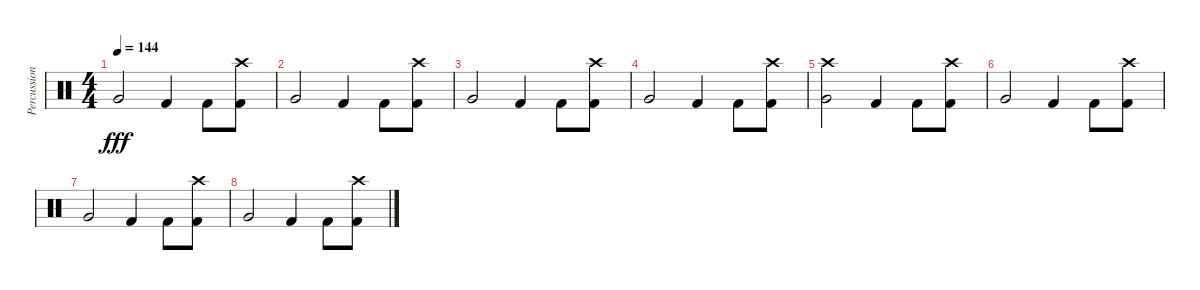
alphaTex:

\track ("Percussion" "Percussion") {instrument percussion}
\staff {score}
\articulation defaults
\ts (4 4)
\tempo 144
\clef neutral
\ks c "Very Low Tom (hit)".2{dy fff} "Kick (hit) 2".4 "Kick (hit) 2".8
("Kick (hit) 2" "Crash high (hit)").8 |
"Very Low Tom (hit)".2 "Kick (hit) 2".4 "Kick (hit) 2".8 ("Kick (hit) 2" "Crash high (hit)").8 |
"Very Low Tom (hit)".2 "Kick (hit) 2".4 "Kick (hit) 2".8 ("Kick (hit) 2" "Crash high (hit)").8 |
"Very Low Tom (hit)".2 "Kick (hit) 2".4 "Kick (hit) 2".8 ("Kick (hit) 2" "Crash high (hit)").8 |
("Crash high (hit)" "Very Low Tom (hit)").2 "Kick (hit) 2".4 "Kick (hit) 2".8 ("Kick (hit) 2" "Crash high (hit)").8 |
"Very Low Tom (hit)".2 "Kick (hit) 2".4 "Kick (hit) 2".8 ("Kick (hit) 2" "Crash high (hit)").8 |
"Very Low Tom (hit)".2 "Kick (hit) 2".4 "Kick (hit) 2".8 ("Kick (hit) 2" "Crash high (hit)").8 |
"Very Low Tom (hit)".2 "Kick (hit) 2".4 "Kick (hit) 2".8 ("Kick (hit) 2" "Crash high (hit)").8
